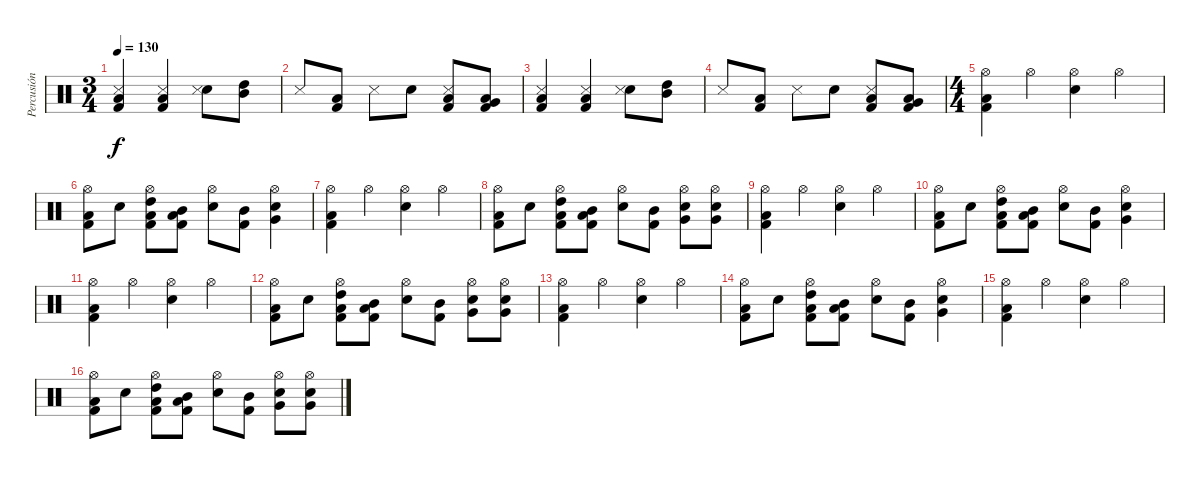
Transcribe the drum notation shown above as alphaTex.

\track ("Percusión" "Percusión") {instrument percussion}
\staff {score}
\articulation defaults
\ts (3 4)
\tempo 130
\clef neutral
\ks c
("Kick (hit) 2" "Low Floor Tom (hit)" "Metronome (hit)").4{dy f} ("Kick (hit) 2" "Low Floor Tom (hit)" "Metronome (hit)").4 ("Snare (hit) 2" "Metronome (hit)").8 ("Mid Tom (hit)" "High Tom (hit)").8 |
"Metronome (hit)".8 ("Kick (hit) 2" "Low Floor Tom (hit)").8 "Metronome (hit)".8 "Snare (hit) 2".8 ("Kick (hit) 2" "Low Floor Tom (hit)" "Metronome (hit)").8 ("Kick (hit) 2" "Very Low Tom (hit)" "Low Floor Tom (hit)").8 |
("Kick (hit) 2" "Low Floor Tom (hit)" "Metronome (hit)").4 ("Kick (hit) 2" "Low Floor Tom (hit)" "Metronome (hit)").4 ("Snare (hit) 2" "Metronome (hit)").8 ("Mid Tom (hit)" "High Tom (hit)").8 |
"Metronome (hit)".8 ("Kick (hit) 2" "Low Floor Tom (hit)").8 "Metronome (hit)".8 "Snare (hit) 2".8 ("Kick (hit) 2" "Low Floor Tom (hit)" "Metronome (hit)").8 ("Kick (hit) 2" "Very Low Tom (hit)" "Low Floor Tom (hit)").8 |
\ts (4 4)
("Kick (hit) 2" "Hi-Hat (open)" "Low Floor Tom (hit)").4 "Hi-Hat (open)".4 ("Snare (hit) 2" "Hi-Hat (open)").4 "Hi-Hat (open)".4 |
("Low Floor Tom (hit)" "Kick (hit) 2" "Hi-Hat (open)").8 "Snare (hit) 2".8 ("Low Floor Tom (hit)" "Kick (hit) 2" "Hi-Hat (open)" "High Tom (hit)").8 ("Low Floor Tom (hit)" "Kick (hit) 2" "Mid Tom (hit)").8 ("Snare (hit) 2" "Hi-Hat (open)").8 ("Kick (hit) 2" "Mid Tom (hit)").8 ("Snare (hit) 2" "Hi-Hat (open)" "Very Low Tom (hit)").4 |
("Kick (hit) 2" "Hi-Hat (open)" "Low Floor Tom (hit)").4 "Hi-Hat (open)".4 ("Snare (hit) 2" "Hi-Hat (open)").4 "Hi-Hat (open)".4 |
("Low Floor Tom (hit)" "Kick (hit) 2" "Hi-Hat (open)").8 "Snare (hit) 2".8 ("Low Floor Tom (hit)" "Kick (hit) 2" "Hi-Hat (open)" "High Tom (hit)").8 ("Low Floor Tom (hit)" "Kick (hit) 2" "Mid Tom (hit)").8 ("Snare (hit) 2" "Hi-Hat (open)").8 ("Kick (hit) 2" "Mid Tom (hit)").8 ("Snare (hit) 2" "Hi-Hat (open)" "Very Low Tom (hit)").8 ("Snare (hit) 2" "Hi-Hat (open)" "Very Low Tom (hit)").8 |
("Kick (hit) 2" "Hi-Hat (open)" "Low Floor Tom (hit)").4 "Hi-Hat (open)".4 ("Snare (hit) 2" "Hi-Hat (open)").4 "Hi-Hat (open)".4 |
("Low Floor Tom (hit)" "Kick (hit) 2" "Hi-Hat (open)").8 "Snare (hit) 2".8 ("Low Floor Tom (hit)" "Kick (hit) 2" "Hi-Hat (open)" "High Tom (hit)").8 ("Low Floor Tom (hit)" "Kick (hit) 2" "Mid Tom (hit)").8 ("Snare (hit) 2" "Hi-Hat (open)").8 ("Kick (hit) 2" "Mid Tom (hit)").8 ("Snare (hit) 2" "Hi-Hat (open)" "Very Low Tom (hit)").4 |
("Kick (hit) 2" "Hi-Hat (open)" "Low Floor Tom (hit)").4 "Hi-Hat (open)".4 ("Snare (hit) 2" "Hi-Hat (open)").4 "Hi-Hat (open)".4 |
("Low Floor Tom (hit)" "Kick (hit) 2" "Hi-Hat (open)").8 "Snare (hit) 2".8 ("Low Floor Tom (hit)" "Kick (hit) 2" "Hi-Hat (open)" "High Tom (hit)").8 ("Low Floor Tom (hit)" "Kick (hit) 2" "Mid Tom (hit)").8 ("Snare (hit) 2" "Hi-Hat (open)").8 ("Kick (hit) 2" "Mid Tom (hit)").8 ("Snare (hit) 2" "Hi-Hat (open)" "Very Low Tom (hit)").8 ("Snare (hit) 2" "Hi-Hat (open)" "Very Low Tom (hit)").8 |
("Kick (hit) 2" "Hi-Hat (open)" "Low Floor Tom (hit)").4 "Hi-Hat (open)".4 ("Snare (hit) 2" "Hi-Hat (open)").4 "Hi-Hat (open)".4 |
("Low Floor Tom (hit)" "Kick (hit) 2" "Hi-Hat (open)").8 "Snare (hit) 2".8 ("Low Floor Tom (hit)" "Kick (hit) 2" "Hi-Hat (open)" "High Tom (hit)").8 ("Low Floor Tom (hit)" "Kick (hit) 2" "Mid Tom (hit)").8 ("Snare (hit) 2" "Hi-Hat (open)").8 ("Kick (hit) 2" "Mid Tom (hit)").8 ("Snare (hit) 2" "Hi-Hat (open)" "Very Low Tom (hit)").4 |
("Kick (hit) 2" "Hi-Hat (open)" "Low Floor Tom (hit)").4 "Hi-Hat (open)".4 ("Snare (hit) 2" "Hi-Hat (open)").4 "Hi-Hat (open)".4 |
("Low Floor Tom (hit)" "Kick (hit) 2" "Hi-Hat (open)").8 "Snare (hit) 2".8 ("Low Floor Tom (hit)" "Kick (hit) 2" "Hi-Hat (open)" "High Tom (hit)").8 ("Low Floor Tom (hit)" "Kick (hit) 2" "Mid Tom (hit)").8 ("Snare (hit) 2" "Hi-Hat (open)").8 ("Kick (hit) 2" "Mid Tom (hit)").8 ("Snare (hit) 2" "Hi-Hat (open)" "Very Low Tom (hit)").8 ("Snare (hit) 2" "Hi-Hat (open)" "Very Low Tom (hit)").8
